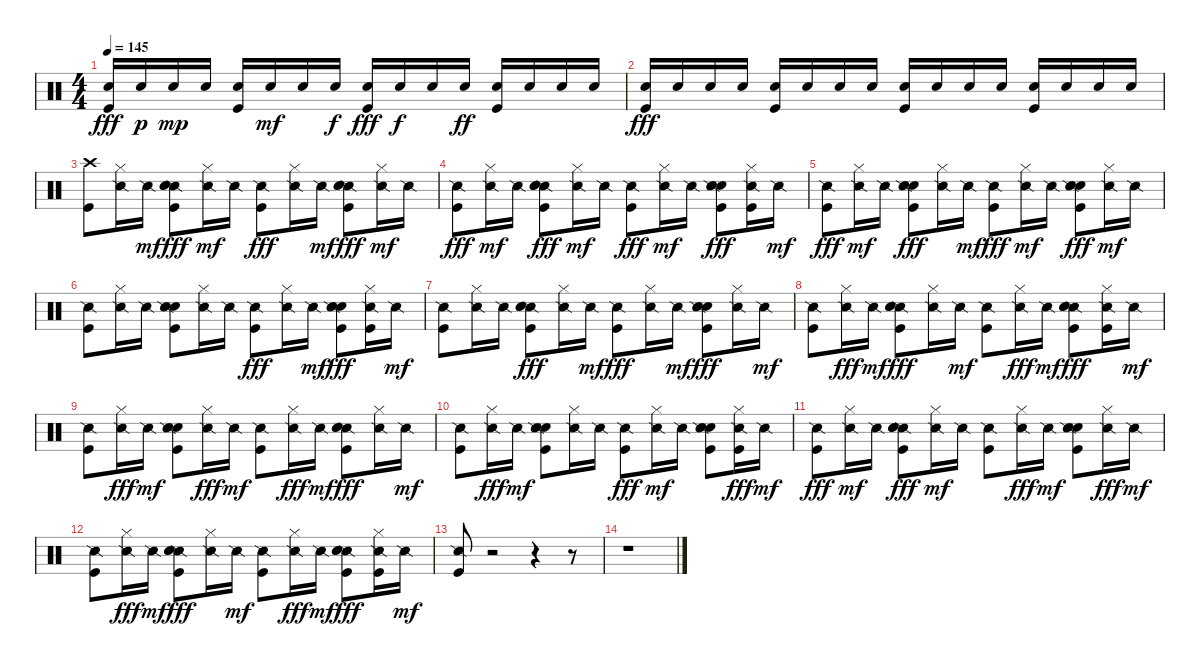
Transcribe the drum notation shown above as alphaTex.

\track "" {instrument percussion}
\staff {score}
\articulation defaults
\ts (4 4)
\tempo 145
\clef neutral
\ks c
("Snare (hit) 2" "Kick (hit)").16{dy fff} "Snare (hit) 2".16{dy p} "Snare (hit) 2".16{dy mp} "Snare (hit) 2".16 ("Kick (hit)" "Snare (hit) 2").16 "Snare (hit) 2".16{dy mf} "Snare (hit) 2".16 "Snare (hit) 2".16{dy f} ("Snare (hit) 2" "Kick (hit)").16{dy fff} "Snare (hit) 2".16{dy f} "Snare (hit) 2".16 "Snare (hit) 2".16{dy ff} ("Kick (hit)" "Snare (hit) 2").16 "Snare (hit) 2".16 "Snare (hit) 2".16 "Snare (hit) 2".16 |
("Snare (hit) 2" "Kick (hit)").16{dy fff} "Snare (hit) 2".16 "Snare (hit) 2".16 "Snare (hit) 2".16 ("Kick (hit)" "Snare (hit) 2").16 "Snare (hit) 2".16 "Snare (hit) 2".16 "Snare (hit) 2".16 ("Snare (hit) 2" "Kick (hit)").16 "Snare (hit) 2".16 "Snare (hit) 2".16 "Snare (hit) 2".16 ("Snare (hit) 2" "Kick (hit)").16 "Snare (hit) 2".16 "Snare (hit) 2".16 "Snare (hit) 2".16 |
("Crash high (hit)" "Kick (hit)").8 ("Snare (side stick) 2" "Hi-Hat (closed)").16 "Snare (side stick) 2".16{dy mf} ("Snare (side stick) 2" "Kick (hit)" "Electric Snare (hit)" "Hand Clap (hit)").8{dy fff} ("Hi-Hat (closed)" "Snare (side stick) 2").16{dy mf} "Snare (side stick) 2".16 ("Snare (side stick) 2" "Kick (hit)").8{dy fff} ("Snare (side stick) 2" "Hi-Hat (closed)").16 "Snare (side stick) 2".16{dy mf} ("Kick (hit)" "Snare (side stick) 2" "Hand Clap (hit)" "Electric Snare (hit)").8{dy fff} ("Hi-Hat (closed)" "Snare (side stick) 2").16{dy mf} "Snare (side stick) 2".16 |
("Snare (side stick) 2" "Kick (hit)").8{dy fff} ("Hi-Hat (closed)" "Snare (side stick) 2").16{dy mf} "Snare (side stick) 2".16 ("Snare (side stick) 2" "Kick (hit)" "Hand Clap (hit)" "Electric Snare (hit)").8{dy fff} ("Hi-Hat (closed)" "Snare (side stick) 2").16{dy mf} "Snare (side stick) 2".16 ("Snare (side stick) 2" "Kick (hit)").8{dy fff} ("Hi-Hat (closed)" "Snare (side stick) 2").16{dy mf} "Snare (side stick) 2".16 ("Hand Clap (hit)" "Electric Snare (hit)" "Snare (side stick) 2" "Kick (hit)").8{dy fff} ("Hi-Hat (closed)" "Snare (side stick) 2" "Kick (hit)").16 "Snare (side stick) 2".16{dy mf} |
("Snare (side stick) 2" "Kick (hit)").8{dy fff} ("Hi-Hat (closed)" "Snare (side stick) 2").16{dy mf} "Snare (side stick) 2".16 ("Hand Clap (hit)" "Snare (side stick) 2" "Kick (hit)" "Electric Snare (hit)").8{dy fff} ("Snare (side stick) 2" "Hi-Hat (closed)").16 "Snare (side stick) 2".16{dy mf} ("Snare (side stick) 2" "Kick (hit)").8{dy fff} ("Hi-Hat (closed)" "Snare (side stick) 2").16{dy mf} "Snare (side stick) 2".16 ("Hand Clap (hit)" "Snare (side stick) 2" "Electric Snare (hit)" "Kick (hit)").8{dy fff} ("Hi-Hat (closed)" "Snare (side stick) 2").16{dy mf} "Snare (side stick) 2".16 |
("Kick (hit)" "Snare (side stick) 2").8 ("Hi-Hat (closed)" "Snare (side stick) 2").16 "Snare (side stick) 2".16 ("Kick (hit)" "Electric Snare (hit)" "Hand Clap (hit)" "Snare (side stick) 2").8 ("Hi-Hat (closed)" "Snare (side stick) 2").16 "Snare (side stick) 2".16 ("Snare (side stick) 2" "Kick (hit)").8{dy fff} ("Snare (side stick) 2" "Hi-Hat (closed)").16 "Snare (side stick) 2".16{dy mf} ("Electric Snare (hit)" "Snare (side stick) 2" "Kick (hit)" "Hand Clap (hit)").8{dy fff} ("Kick (hit)" "Snare (side stick) 2" "Hi-Hat (closed)").16 "Snare (side stick) 2".16{dy mf} |
("Kick (hit)" "Snare (side stick) 2").8 ("Hi-Hat (closed)" "Snare (side stick) 2").16 "Snare (side stick) 2".16 ("Snare (side stick) 2" "Hand Clap (hit)" "Electric Snare (hit)" "Kick (hit)").8{dy fff} ("Snare (side stick) 2" "Hi-Hat (closed)").16 "Snare (side stick) 2".16{dy mf} ("Snare (side stick) 2" "Kick (hit)").8{dy fff} ("Snare (side stick) 2" "Hi-Hat (closed)").16 "Snare (side stick) 2".16{dy mf} ("Kick (hit)" "Electric Snare (hit)" "Snare (side stick) 2" "Hand Clap (hit)").8{dy fff} ("Snare (side stick) 2" "Hi-Hat (closed)").16 "Snare (side stick) 2".16{dy mf} |
("Kick (hit)" "Snare (side stick) 2").8 ("Snare (side stick) 2" "Hi-Hat (closed)").16{dy fff} "Snare (side stick) 2".16{dy mf} ("Snare (side stick) 2" "Hand Clap (hit)" "Kick (hit)" "Electric Snare (hit)").8{dy fff} ("Snare (side stick) 2" "Hi-Hat (closed)").16 "Snare (side stick) 2".16{dy mf} ("Kick (hit)" "Snare (side stick) 2").8 ("Snare (side stick) 2" "Hi-Hat (closed)").16{dy fff} "Snare (side stick) 2".16{dy mf} ("Kick (hit)" "Snare (side stick) 2" "Hand Clap (hit)" "Electric Snare (hit)").8{dy fff} ("Snare (side stick) 2" "Kick (hit)" "Hi-Hat (closed)").16 "Snare (side stick) 2".16{dy mf} |
("Kick (hit)" "Snare (side stick) 2").8 ("Snare (side stick) 2" "Hi-Hat (closed)").16{dy fff} "Snare (side stick) 2".16{dy mf} ("Electric Snare (hit)" "Kick (hit)" "Hand Clap (hit)" "Snare (side stick) 2").8 ("Snare (side stick) 2" "Hi-Hat (closed)").16{dy fff} "Snare (side stick) 2".16{dy mf} ("Kick (hit)" "Snare (side stick) 2").8 ("Snare (side stick) 2" "Hi-Hat (closed)").16{dy fff} "Snare (side stick) 2".16{dy mf} ("Kick (hit)" "Snare (side stick) 2" "Electric Snare (hit)" "Hand Clap (hit)").8{dy fff} ("Snare (side stick) 2" "Hi-Hat (closed)").16 "Snare (side stick) 2".16{dy mf} |
("Kick (hit)" "Snare (side stick) 2").8 ("Snare (side stick) 2" "Hi-Hat (closed)").16{dy fff} "Snare (side stick) 2".16{dy mf} ("Hand Clap (hit)" "Kick (hit)" "Snare (side stick) 2" "Electric Snare (hit)").8 ("Hi-Hat (closed)" "Snare (side stick) 2").16 "Snare (side stick) 2".16 ("Snare (side stick) 2" "Kick (hit)").8{dy fff} ("Hi-Hat (closed)" "Snare (side stick) 2").16{dy mf} "Snare (side stick) 2".16 ("Kick (hit)" "Hand Clap (hit)" "Snare (side stick) 2" "Electric Snare (hit)").8 ("Snare (side stick) 2" "Kick (hit)" "Hi-Hat (closed)").16{dy fff} "Snare (side stick) 2".16{dy mf} |
("Snare (side stick) 2" "Kick (hit)").8{dy fff} ("Hi-Hat (closed)" "Snare (side stick) 2").16{dy mf} "Snare (side stick) 2".16 ("Snare (side stick) 2" "Kick (hit)" "Electric Snare (hit)" "Hand Clap (hit)").8{dy fff} ("Hi-Hat (closed)" "Snare (side stick) 2").16{dy mf} "Snare (side stick) 2".16 ("Kick (hit)" "Snare (side stick) 2").8 ("Snare (side stick) 2" "Hi-Hat (closed)").16{dy fff} "Snare (side stick) 2".16{dy mf} ("Kick (hit)" "Hand Clap (hit)" "Electric Snare (hit)" "Snare (side stick) 2").8 ("Snare (side stick) 2" "Hi-Hat (closed)").16{dy fff} "Snare (side stick) 2".16{dy mf} |
("Kick (hit)" "Snare (side stick) 2").8 ("Snare (side stick) 2" "Hi-Hat (closed)").16{dy fff} "Snare (side stick) 2".16{dy mf} ("Snare (side stick) 2" "Hand Clap (hit)" "Electric Snare (hit)" "Kick (hit)").8{dy fff} ("Snare (side stick) 2" "Hi-Hat (closed)").16 "Snare (side stick) 2".16{dy mf} ("Kick (hit)" "Snare (side stick) 2").8 ("Snare (side stick) 2" "Hi-Hat (closed)").16{dy fff} "Snare (side stick) 2".16{dy mf} ("Kick (hit)" "Snare (side stick) 2" "Hand Clap (hit)" "Electric Snare (hit)").8{dy fff} ("Snare (side stick) 2" "Hi-Hat (closed)" "Kick (hit)").16 "Snare (side stick) 2".16{dy mf} |
("Kick (hit)" "Snare (side stick) 2").8 r.2 r.4 r.8 |
r.1
